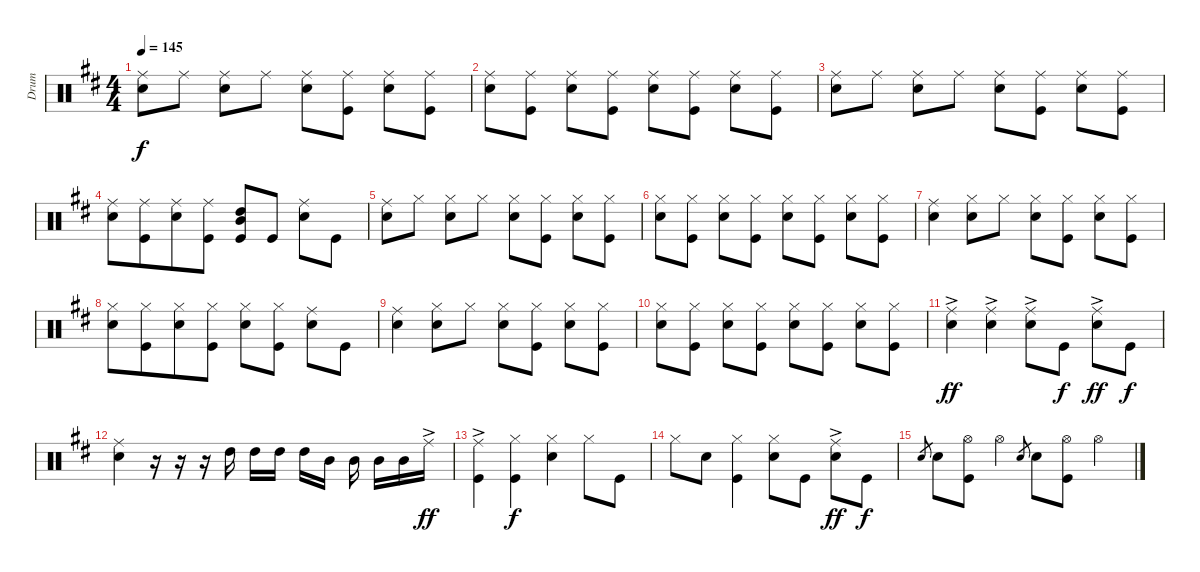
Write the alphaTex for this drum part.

\track ("     Drum" "     Drum") {instrument percussion}
\staff {score}
\articulation defaults
\ts (4 4)
\tempo 145
\clef neutral
\ks d
("Ride (middle)" "Snare (hit) 2").8{dy f} "Ride (middle)".8 ("Ride (middle)" "Snare (hit) 2").8 "Ride (middle)".8 ("Ride (middle)" "Snare (hit) 2").8 ("Ride (middle)" "Kick (hit)").8 ("Ride (middle)" "Snare (hit) 2").8 ("Ride (middle)" "Kick (hit)").8 |
("Ride (middle)" "Snare (hit) 2").8 ("Ride (middle)" "Kick (hit)").8 ("Ride (middle)" "Snare (hit) 2").8 ("Ride (middle)" "Kick (hit)").8 ("Ride (middle)" "Snare (hit) 2").8 ("Ride (middle)" "Kick (hit)").8 ("Ride (middle)" "Snare (hit) 2").8 ("Ride (middle)" "Kick (hit)").8 |
("Ride (middle)" "Snare (hit) 2").8 "Ride (middle)".8 ("Ride (middle)" "Snare (hit) 2").8 "Ride (middle)".8 ("Ride (middle)" "Snare (hit) 2").8 ("Ride (middle)" "Kick (hit)").8 ("Ride (middle)" "Snare (hit) 2").8 ("Ride (middle)" "Kick (hit)").8 |
("Ride (middle)" "Snare (hit) 2").8 ("Ride (middle)" "Kick (hit)").8{beam merge} ("Ride (middle)" "Snare (hit) 2").8 ("Ride (middle)" "Kick (hit)").8 ("Mid Tom (hit)" "High Tom (hit)" "Kick (hit)").8{beam merge} "Kick (hit)".8 ("Ride (middle)" "Snare (hit) 2").8 "Kick (hit)".8 |
("Ride (middle)" "Snare (hit) 2").8 "Hi-Hat (closed)".8 ("Hi-Hat (closed)" "Snare (hit) 2").8 "Hi-Hat (closed)".8 ("Hi-Hat (closed)" "Snare (hit) 2").8 ("Hi-Hat (closed)" "Kick (hit)").8 ("Hi-Hat (closed)" "Snare (hit) 2").8 ("Hi-Hat (closed)" "Kick (hit)").8 |
("Hi-Hat (closed)" "Snare (hit) 2").8 ("Hi-Hat (closed)" "Kick (hit)").8 ("Hi-Hat (closed)" "Snare (hit) 2").8 ("Hi-Hat (closed)" "Kick (hit)").8 ("Hi-Hat (closed)" "Snare (hit) 2").8 ("Hi-Hat (closed)" "Kick (hit)").8 ("Hi-Hat (closed)" "Snare (hit) 2").8 ("Hi-Hat (closed)" "Kick (hit)").8 |
("Ride (middle)" "Snare (hit) 2").4 ("Hi-Hat (closed)" "Snare (hit) 2").8 "Hi-Hat (closed)".8 ("Hi-Hat (closed)" "Snare (hit) 2").8 ("Hi-Hat (closed)" "Kick (hit)").8 ("Hi-Hat (closed)" "Snare (hit) 2").8 ("Hi-Hat (closed)" "Kick (hit)").8 |
("Hi-Hat (closed)" "Snare (hit) 2").8 ("Hi-Hat (closed)" "Kick (hit)").8{beam merge} ("Hi-Hat (closed)" "Snare (hit) 2").8 ("Hi-Hat (closed)" "Kick (hit)").8 ("Hi-Hat (closed)" "Snare (hit) 2").8{beam merge} ("Hi-Hat (closed)" "Kick (hit)").8 ("Ride (middle)" "Snare (hit) 2").8 "Kick (hit)".8 |
("Ride (middle)" "Snare (hit) 2").4 ("Hi-Hat (closed)" "Snare (hit) 2").8 "Hi-Hat (closed)".8 ("Hi-Hat (closed)" "Snare (hit) 2").8 ("Hi-Hat (closed)" "Kick (hit)").8 ("Hi-Hat (closed)" "Snare (hit) 2").8 ("Hi-Hat (closed)" "Kick (hit)").8 |
("Hi-Hat (closed)" "Snare (hit) 2").8 ("Hi-Hat (closed)" "Kick (hit)").8 ("Hi-Hat (closed)" "Snare (hit) 2").8 ("Hi-Hat (closed)" "Kick (hit)").8 ("Hi-Hat (closed)" "Snare (hit) 2").8 ("Hi-Hat (closed)" "Kick (hit)").8 ("Hi-Hat (closed)" "Snare (hit) 2").8 ("Hi-Hat (closed)" "Kick (hit)").8 |
("Ride (middle)"{ac} "Snare (hit) 2").4{dy ff} ("Ride (middle)"{ac} "Snare (hit) 2").4 ("Ride (middle)"{ac} "Snare (hit) 2").8 "Kick (hit)".8{dy f} ("Ride (middle)"{ac} "Snare (hit) 2").8{dy ff} "Kick (hit)".8{dy f} |
("Ride (middle)" "Snare (hit) 2").4 r.16{beam merge} r.16 r.16 "High Tom (hit)".16 "High Tom (hit)".16{beam merge} "High Tom (hit)".16{beam split} "High Tom (hit)".16{beam merge} "Mid Tom (hit)".16 "Mid Tom (hit)".16{beam split} "Mid Tom (hit)".16 "Mid Tom (hit)".16{beam merge} "Ride (middle)"{ac}.16{dy ff} |
("Ride (middle)"{ac} "Kick (hit)").4 ("Hi-Hat (closed)" "Kick (hit)").4{dy f} ("Hi-Hat (closed)" "Snare (hit) 2").4 "Hi-Hat (closed)".8 "Kick (hit)".8 |
"Hi-Hat (closed)".8 "Snare (hit) 2".8 ("Hi-Hat (closed)" "Kick (hit)").4 ("Hi-Hat (closed)" "Snare (hit) 2").8 "Kick (hit)".8 ("Ride (middle)"{ac} "Snare (hit) 2").8{dy ff} "Kick (hit)".8{dy f} |
"Snare (hit) 2"{sl}.8{gr} "Snare (hit) 2".8 ("Hi-Hat (open)" "Kick (hit)").8 "Hi-Hat (open)".4 "Snare (hit) 2"{sl}.8{gr} "Snare (hit) 2".8 ("Hi-Hat (open)" "Kick (hit)").8 "Hi-Hat (open)".4
